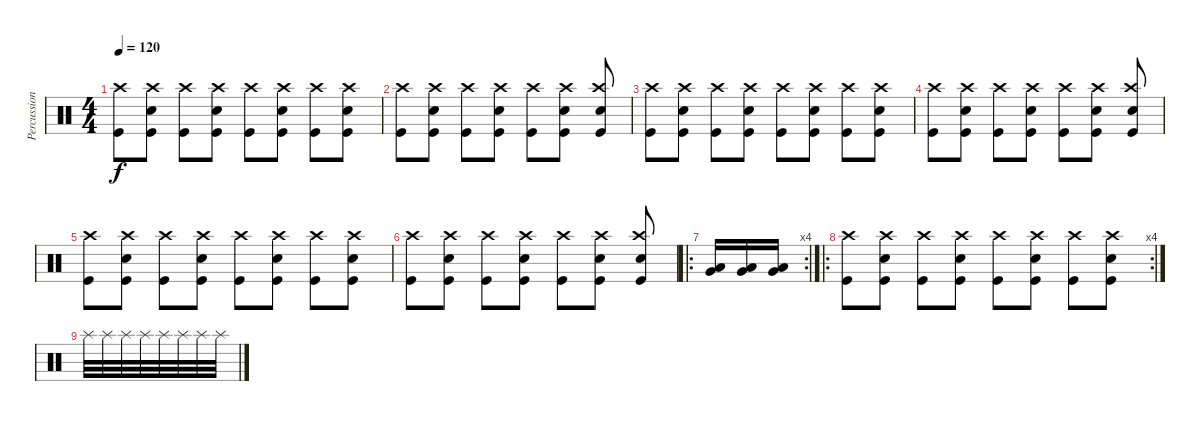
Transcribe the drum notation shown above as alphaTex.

\track ("Percussion" "Percussion") {instrument percussion}
\staff {score}
\articulation defaults
\ts (4 4)
\tempo 120
\clef neutral
\ks c
("Kick (hit)" "Crash high (hit)").8{dy f} ("Electric Snare (hit)" "Kick (hit)" "Crash high (hit)").8 ("Kick (hit)" "Crash high (hit)").8 ("Electric Snare (hit)" "Kick (hit)" "Crash high (hit)").8 ("Kick (hit)" "Crash high (hit)").8 ("Electric Snare (hit)" "Kick (hit)" "Crash high (hit)").8 ("Kick (hit)" "Crash high (hit)").8 ("Electric Snare (hit)" "Kick (hit)" "Crash high (hit)").8 |
("Kick (hit)" "Crash high (hit)").8 ("Electric Snare (hit)" "Kick (hit)" "Crash high (hit)").8 ("Kick (hit)" "Crash high (hit)").8 ("Electric Snare (hit)" "Kick (hit)" "Crash high (hit)").8 ("Kick (hit)" "Crash high (hit)").8 ("Electric Snare (hit)" "Kick (hit)" "Crash high (hit)").8 ("Electric Snare (hit)" "Kick (hit)" "Crash high (hit)").8 |
("Kick (hit)" "Crash high (hit)").8 ("Electric Snare (hit)" "Kick (hit)" "Crash high (hit)").8 ("Kick (hit)" "Crash high (hit)").8 ("Electric Snare (hit)" "Kick (hit)" "Crash high (hit)").8 ("Kick (hit)" "Crash high (hit)").8 ("Electric Snare (hit)" "Kick (hit)" "Crash high (hit)").8 ("Kick (hit)" "Crash high (hit)").8 ("Electric Snare (hit)" "Kick (hit)" "Crash high (hit)").8 |
("Kick (hit)" "Crash high (hit)").8 ("Electric Snare (hit)" "Kick (hit)" "Crash high (hit)").8 ("Kick (hit)" "Crash high (hit)").8 ("Electric Snare (hit)" "Kick (hit)" "Crash high (hit)").8 ("Kick (hit)" "Crash high (hit)").8 ("Electric Snare (hit)" "Kick (hit)" "Crash high (hit)").8 ("Electric Snare (hit)" "Kick (hit)" "Crash high (hit)").8 |
("Kick (hit)" "Crash high (hit)").8 ("Electric Snare (hit)" "Kick (hit)" "Crash high (hit)").8 ("Kick (hit)" "Crash high (hit)").8 ("Electric Snare (hit)" "Kick (hit)" "Crash high (hit)").8 ("Kick (hit)" "Crash high (hit)").8 ("Electric Snare (hit)" "Kick (hit)" "Crash high (hit)").8 ("Kick (hit)" "Crash high (hit)").8 ("Electric Snare (hit)" "Kick (hit)" "Crash high (hit)").8 |
("Kick (hit)" "Crash high (hit)").8 ("Electric Snare (hit)" "Kick (hit)" "Crash high (hit)").8 ("Kick (hit)" "Crash high (hit)").8 ("Electric Snare (hit)" "Kick (hit)" "Crash high (hit)").8 ("Kick (hit)" "Crash high (hit)").8 ("Electric Snare (hit)" "Kick (hit)" "Crash high (hit)").8 ("Electric Snare (hit)" "Kick (hit)" "Crash high (hit)").8 |
\ro
\rc 4
("Very Low Tom (hit)" "Low Tom (hit)").16 ("Very Low Tom (hit)" "Low Tom (hit)").16 ("Very Low Tom (hit)" "Low Tom (hit)").16 |
\ro
\rc 4
("Kick (hit)" "Crash high (hit)").8 ("Electric Snare (hit)" "Kick (hit)" "Crash high (hit)").8 ("Kick (hit)" "Crash high (hit)").8 ("Electric Snare (hit)" "Kick (hit)" "Crash high (hit)").8 ("Kick (hit)" "Crash high (hit)").8 ("Electric Snare (hit)" "Kick (hit)" "Crash high (hit)").8 ("Kick (hit)" "Crash high (hit)").8 ("Electric Snare (hit)" "Kick (hit)" "Crash high (hit)").8 |
"Splash (hit)".32 "Splash (hit)".32 "Splash (hit)".32 "Splash (hit)".32 "Splash (hit)".32 "Splash (hit)".32 "Splash (hit)".32 "Splash (hit)".32
